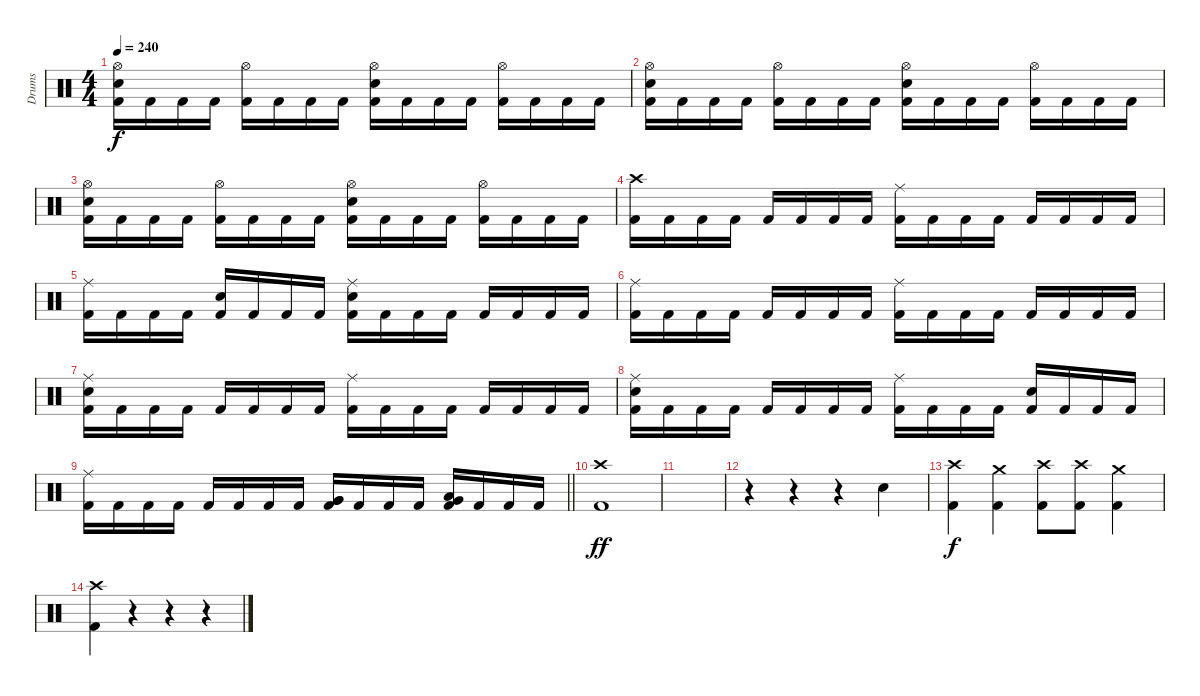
\track ("Drums" "Drums") {instrument percussion}
\staff {score}
\articulation defaults
\ts (4 4)
\tempo 240
\clef neutral
\ks c
("Hi-Hat (open)" "Electric Snare (hit)" "Kick (hit) 2").16{dy f} "Kick (hit) 2".16 "Kick (hit) 2".16 "Kick (hit) 2".16 ("Hi-Hat (open)" "Kick (hit) 2").16 "Kick (hit) 2".16 "Kick (hit) 2".16 "Kick (hit) 2".16 ("Hi-Hat (open)" "Electric Snare (hit)" "Kick (hit) 2").16 "Kick (hit) 2".16 "Kick (hit) 2".16 "Kick (hit) 2".16 ("Hi-Hat (open)" "Kick (hit) 2").16 "Kick (hit) 2".16 "Kick (hit) 2".16 "Kick (hit) 2".16 |
("Hi-Hat (open)" "Electric Snare (hit)" "Kick (hit) 2").16 "Kick (hit) 2".16 "Kick (hit) 2".16 "Kick (hit) 2".16 ("Hi-Hat (open)" "Kick (hit) 2").16 "Kick (hit) 2".16 "Kick (hit) 2".16 "Kick (hit) 2".16 ("Hi-Hat (open)" "Electric Snare (hit)" "Kick (hit) 2").16 "Kick (hit) 2".16 "Kick (hit) 2".16 "Kick (hit) 2".16 ("Hi-Hat (open)" "Kick (hit) 2").16 "Kick (hit) 2".16 "Kick (hit) 2".16 "Kick (hit) 2".16 |
("Hi-Hat (open)" "Electric Snare (hit)" "Kick (hit) 2").16 "Kick (hit) 2".16 "Kick (hit) 2".16 "Kick (hit) 2".16 ("Hi-Hat (open)" "Kick (hit) 2").16 "Kick (hit) 2".16 "Kick (hit) 2".16 "Kick (hit) 2".16 ("Hi-Hat (open)" "Electric Snare (hit)" "Kick (hit) 2").16 "Kick (hit) 2".16 "Kick (hit) 2".16 "Kick (hit) 2".16 ("Hi-Hat (open)" "Kick (hit) 2").16 "Kick (hit) 2".16 "Kick (hit) 2".16 "Kick (hit) 2".16 |
("Crash high (hit)" "Kick (hit) 2").16 "Kick (hit) 2".16 "Kick (hit) 2".16 "Kick (hit) 2".16 "Kick (hit) 2".16 "Kick (hit) 2".16 "Kick (hit) 2".16 "Kick (hit) 2".16 ("Ride (middle)" "Kick (hit) 2").16 "Kick (hit) 2".16 "Kick (hit) 2".16 "Kick (hit) 2".16 "Kick (hit) 2".16 "Kick (hit) 2".16 "Kick (hit) 2".16 "Kick (hit) 2".16 |
("Ride (middle)" "Kick (hit) 2").16 "Kick (hit) 2".16 "Kick (hit) 2".16 "Kick (hit) 2".16 ("Electric Snare (hit)" "Kick (hit) 2").16 "Kick (hit) 2".16 "Kick (hit) 2".16 "Kick (hit) 2".16 ("Ride (middle)" "Electric Snare (hit)" "Kick (hit) 2").16 "Kick (hit) 2".16 "Kick (hit) 2".16 "Kick (hit) 2".16 "Kick (hit) 2".16 "Kick (hit) 2".16 "Kick (hit) 2".16 "Kick (hit) 2".16 |
("Ride (middle)" "Kick (hit) 2").16 "Kick (hit) 2".16 "Kick (hit) 2".16 "Kick (hit) 2".16 "Kick (hit) 2".16 "Kick (hit) 2".16 "Kick (hit) 2".16 "Kick (hit) 2".16 ("Ride (middle)" "Kick (hit) 2").16 "Kick (hit) 2".16 "Kick (hit) 2".16 "Kick (hit) 2".16 "Kick (hit) 2".16 "Kick (hit) 2".16 "Kick (hit) 2".16 "Kick (hit) 2".16 |
("Ride (middle)" "Electric Snare (hit)" "Kick (hit) 2").16 "Kick (hit) 2".16 "Kick (hit) 2".16 "Kick (hit) 2".16 "Kick (hit) 2".16 "Kick (hit) 2".16 "Kick (hit) 2".16 "Kick (hit) 2".16 ("Ride (middle)" "Kick (hit) 2").16 "Kick (hit) 2".16 "Kick (hit) 2".16 "Kick (hit) 2".16 "Kick (hit) 2".16 "Kick (hit) 2".16 "Kick (hit) 2".16 "Kick (hit) 2".16 |
("Ride (middle)" "Electric Snare (hit)" "Kick (hit) 2").16 "Kick (hit) 2".16 "Kick (hit) 2".16 "Kick (hit) 2".16 "Kick (hit) 2".16 "Kick (hit) 2".16 "Kick (hit) 2".16 "Kick (hit) 2".16 ("Ride (middle)" "Kick (hit) 2").16 "Kick (hit) 2".16 "Kick (hit) 2".16 "Kick (hit) 2".16 ("Electric Snare (hit)" "Kick (hit) 2").16 "Kick (hit) 2".16 "Kick (hit) 2".16 "Kick (hit) 2".16 |
\barLineRight lightlight
("Ride (middle)" "Kick (hit) 2").16 "Kick (hit) 2".16 "Kick (hit) 2".16 "Kick (hit) 2".16 "Kick (hit) 2".16 "Kick (hit) 2".16 "Kick (hit) 2".16 "Kick (hit) 2".16 ("Very Low Tom (hit)" "Very Low Tom (hit)" "Kick (hit) 2").16 "Kick (hit) 2".16 "Kick (hit) 2".16 "Kick (hit) 2".16 ("Very Low Tom (hit)" "Low Floor Tom (hit)" "Kick (hit) 2").16 "Kick (hit) 2".16 "Kick (hit) 2".16 "Kick (hit) 2".16 |
\section ("" "")
("Crash high (hit)" "Kick (hit) 2").1{dy ff} |
|
r.4 r.4 r.4 "Electric Snare (hit)".4 |
("Crash high (hit)" "Kick (hit) 2").4{dy f} ("Crash medium (hit)" "Kick (hit) 2").4 ("Crash high (hit)" "Kick (hit) 2").8 ("Crash high (hit)" "Kick (hit) 2").8 ("Crash medium (hit)" "Kick (hit) 2").4 |
("Crash high (hit)" "Kick (hit) 2").4 r.4{volume 0} r.4 r.4
